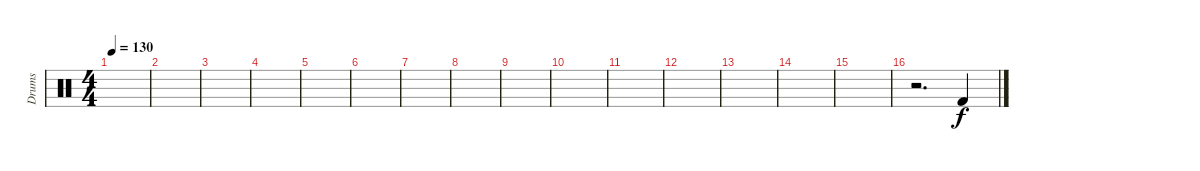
\track ("Drums" "Drums") {instrument percussion}
\staff {score}
\articulation defaults
\ts (4 4)
\tempo 130
\clef neutral
\ks c
|
|
|
|
|
|
|
|
|
|
|
|
|
|
|
r.2{d} "Kick (hit) 2".4
